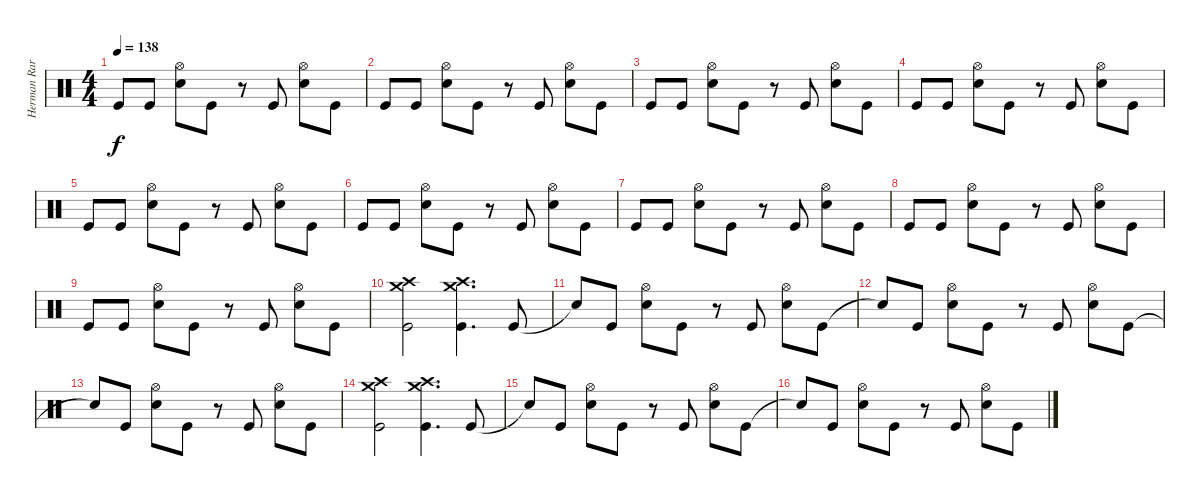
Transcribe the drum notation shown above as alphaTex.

\track ("Herman Rarebell Drums" "Herman Rar") {instrument percussion}
\staff {score}
\articulation defaults
\ts (4 4)
\tempo 138
\clef neutral
\ks c "Kick (hit)".8{dy f} "Kick (hit)".8
("Hi-Hat (open)" "Snare (hit) 2").8 "Kick (hit)".8 r.8 "Kick (hit)".8 ("Hi-Hat (open)" "Snare (hit) 2").8 "Kick (hit)".8 |
"Kick (hit)".8 "Kick (hit)".8 ("Hi-Hat (open)" "Snare (hit) 2").8 "Kick (hit)".8 r.8 "Kick (hit)".8 ("Hi-Hat (open)" "Snare (hit) 2").8 "Kick (hit)".8 |
"Kick (hit)".8 "Kick (hit)".8 ("Hi-Hat (open)" "Snare (hit) 2").8 "Kick (hit)".8 r.8 "Kick (hit)".8 ("Hi-Hat (open)" "Snare (hit) 2").8 "Kick (hit)".8 |
"Kick (hit)".8 "Kick (hit)".8 ("Hi-Hat (open)" "Snare (hit) 2").8 "Kick (hit)".8 r.8 "Kick (hit)".8 ("Hi-Hat (open)" "Snare (hit) 2").8 "Kick (hit)".8 |
"Kick (hit)".8 "Kick (hit)".8 ("Hi-Hat (open)" "Snare (hit) 2").8 "Kick (hit)".8 r.8 "Kick (hit)".8 ("Hi-Hat (open)" "Snare (hit) 2").8 "Kick (hit)".8 |
"Kick (hit)".8 "Kick (hit)".8 ("Hi-Hat (open)" "Snare (hit) 2").8 "Kick (hit)".8 r.8 "Kick (hit)".8 ("Hi-Hat (open)" "Snare (hit) 2").8 "Kick (hit)".8 |
"Kick (hit)".8 "Kick (hit)".8 ("Hi-Hat (open)" "Snare (hit) 2").8 "Kick (hit)".8 r.8 "Kick (hit)".8 ("Hi-Hat (open)" "Snare (hit) 2").8 "Kick (hit)".8 |
"Kick (hit)".8 "Kick (hit)".8 ("Hi-Hat (open)" "Snare (hit) 2").8 "Kick (hit)".8 r.8 "Kick (hit)".8 ("Hi-Hat (open)" "Snare (hit) 2").8 "Kick (hit)".8 |
"Kick (hit)".8 "Kick (hit)".8 ("Hi-Hat (open)" "Snare (hit) 2").8 "Kick (hit)".8 r.8 "Kick (hit)".8 ("Hi-Hat (open)" "Snare (hit) 2").8 "Kick (hit)".8 |
("Crash high (hit)" "Crash medium (hit)" "Kick (hit)").2 ("Crash high (hit)" "Crash medium (hit)" "Kick (hit)").4{d} "Kick (hit)".8 |
"Snare (hit)"{t}.8 "Kick (hit)".8 ("Hi-Hat (open)" "Snare (hit) 2").8 "Kick (hit)".8 r.8 "Kick (hit)".8 ("Hi-Hat (open)" "Snare (hit) 2").8 "Kick (hit)".8 |
"Snare (hit)"{t}.8 "Kick (hit)".8 ("Hi-Hat (open)" "Snare (hit) 2").8 "Kick (hit)".8 r.8 "Kick (hit)".8 ("Hi-Hat (open)" "Snare (hit) 2").8 "Kick (hit)".8 |
"Snare (hit)"{t}.8 "Kick (hit)".8 ("Hi-Hat (open)" "Snare (hit) 2").8 "Kick (hit)".8 r.8 "Kick (hit)".8 ("Hi-Hat (open)" "Snare (hit) 2").8 "Kick (hit)".8 |
("Crash high (hit)" "Crash medium (hit)" "Kick (hit)").2 ("Crash high (hit)" "Crash medium (hit)" "Kick (hit)").4{d} "Kick (hit)".8 |
"Snare (hit)"{t}.8 "Kick (hit)".8 ("Hi-Hat (open)" "Snare (hit) 2").8 "Kick (hit)".8 r.8 "Kick (hit)".8 ("Hi-Hat (open)" "Snare (hit) 2").8 "Kick (hit)".8 |
"Snare (hit)"{t}.8 "Kick (hit)".8 ("Hi-Hat (open)" "Snare (hit) 2").8 "Kick (hit)".8 r.8 "Kick (hit)".8 ("Hi-Hat (open)" "Snare (hit) 2").8 "Kick (hit)".8
